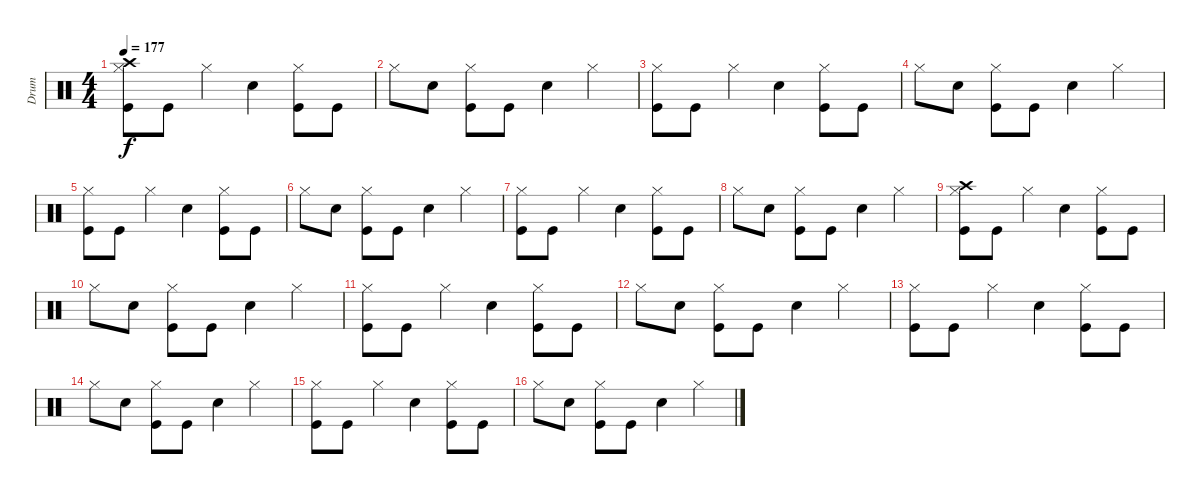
\track ("Drum" "Drum") {instrument percussion}
\staff {score}
\articulation defaults
\ts (4 4)
\tempo 177
\clef neutral
\ks c
("Kick (hit)" "Hi-Hat (closed)" "Crash high (hit)").8{dy f} "Kick (hit)".8 "Hi-Hat (closed)".4 "Snare (hit) 2".4 ("Kick (hit)" "Hi-Hat (closed)").8 "Kick (hit)".8 |
"Hi-Hat (closed)".8 "Snare (hit) 2".8 ("Kick (hit)" "Hi-Hat (closed)").8 "Kick (hit)".8 "Snare (hit) 2".4 "Hi-Hat (closed)".4 |
("Kick (hit)" "Hi-Hat (closed)").8 "Kick (hit)".8 "Hi-Hat (closed)".4 "Snare (hit) 2".4 ("Kick (hit)" "Hi-Hat (closed)").8 "Kick (hit)".8 |
"Hi-Hat (closed)".8 "Snare (hit) 2".8 ("Kick (hit)" "Hi-Hat (closed)").8 "Kick (hit)".8 "Snare (hit) 2".4 "Hi-Hat (closed)".4 |
("Kick (hit)" "Hi-Hat (closed)").8 "Kick (hit)".8 "Hi-Hat (closed)".4 "Snare (hit) 2".4 ("Kick (hit)" "Hi-Hat (closed)").8 "Kick (hit)".8 |
"Hi-Hat (closed)".8 "Snare (hit) 2".8 ("Kick (hit)" "Hi-Hat (closed)").8 "Kick (hit)".8 "Snare (hit) 2".4 "Hi-Hat (closed)".4 |
("Kick (hit)" "Hi-Hat (closed)").8 "Kick (hit)".8 "Hi-Hat (closed)".4 "Snare (hit) 2".4 ("Kick (hit)" "Hi-Hat (closed)").8 "Kick (hit)".8 |
"Hi-Hat (closed)".8 "Snare (hit) 2".8 ("Kick (hit)" "Hi-Hat (closed)").8 "Kick (hit)".8 "Snare (hit) 2".4 "Hi-Hat (closed)".4 |
("Kick (hit)" "Hi-Hat (closed)" "Crash high (hit)").8 "Kick (hit)".8 "Hi-Hat (closed)".4 "Snare (hit) 2".4 ("Kick (hit)" "Hi-Hat (closed)").8 "Kick (hit)".8 |
"Hi-Hat (closed)".8 "Snare (hit) 2".8 ("Kick (hit)" "Hi-Hat (closed)").8 "Kick (hit)".8 "Snare (hit) 2".4 "Hi-Hat (closed)".4 |
("Kick (hit)" "Hi-Hat (closed)").8 "Kick (hit)".8 "Hi-Hat (closed)".4 "Snare (hit) 2".4 ("Kick (hit)" "Hi-Hat (closed)").8 "Kick (hit)".8 |
"Hi-Hat (closed)".8 "Snare (hit) 2".8 ("Kick (hit)" "Hi-Hat (closed)").8 "Kick (hit)".8 "Snare (hit) 2".4 "Hi-Hat (closed)".4 |
("Kick (hit)" "Hi-Hat (closed)").8 "Kick (hit)".8 "Hi-Hat (closed)".4 "Snare (hit) 2".4 ("Kick (hit)" "Hi-Hat (closed)").8 "Kick (hit)".8 |
"Hi-Hat (closed)".8 "Snare (hit) 2".8 ("Kick (hit)" "Hi-Hat (closed)").8 "Kick (hit)".8 "Snare (hit) 2".4 "Hi-Hat (closed)".4 |
("Kick (hit)" "Hi-Hat (closed)").8 "Kick (hit)".8 "Hi-Hat (closed)".4 "Snare (hit) 2".4 ("Kick (hit)" "Hi-Hat (closed)").8 "Kick (hit)".8 |
"Hi-Hat (closed)".8 "Snare (hit) 2".8 ("Kick (hit)" "Hi-Hat (closed)").8 "Kick (hit)".8 "Snare (hit) 2".4 "Hi-Hat (closed)".4
